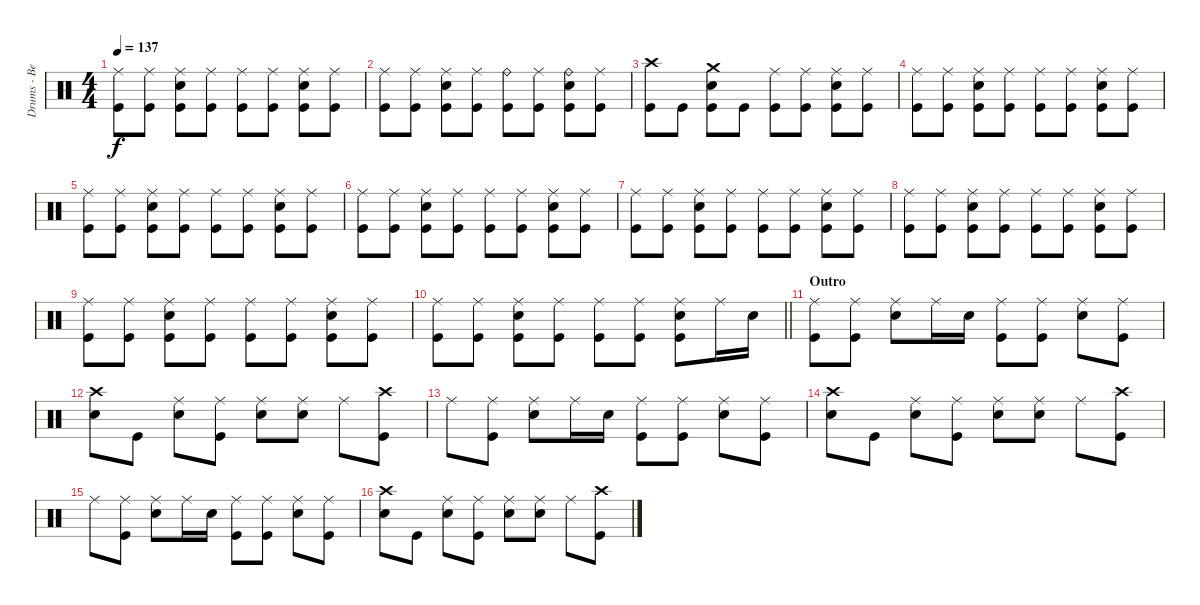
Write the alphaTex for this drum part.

\track ("Drums - Ben Johnston" "Drums - Be") {instrument percussion}
\staff {score}
\articulation defaults
\ts (4 4)
\tempo 137
\clef neutral
\ks c
("Ride (middle)" "Kick (hit)").8{dy f} ("Ride (middle)" "Kick (hit)").8 ("Ride (middle)" "Snare (hit) 2" "Kick (hit)").8 ("Ride (middle)" "Kick (hit)").8 ("Ride (middle)" "Kick (hit)").8 ("Ride (middle)" "Kick (hit)").8 ("Ride (middle)" "Snare (hit) 2" "Kick (hit)").8 ("Ride (middle)" "Kick (hit)").8 |
("Ride (middle)" "Kick (hit)").8 ("Ride (middle)" "Kick (hit)").8 ("Ride (middle)" "Snare (hit) 2" "Kick (hit)").8 ("Ride (middle)" "Kick (hit)").8 ("Ride (bell)" "Kick (hit)").8 ("Ride (middle)" "Kick (hit)").8 ("Ride (bell)" "Snare (hit) 2" "Kick (hit)").8 ("Ride (middle)" "Kick (hit)").8 |
("Crash high (hit)" "Kick (hit)").8 "Kick (hit)".8 ("Crash medium (hit)" "Snare (hit) 2" "Kick (hit)").8 "Kick (hit)".8 ("Ride (middle)" "Kick (hit)").8 ("Ride (middle)" "Kick (hit)").8 ("Ride (middle)" "Snare (hit) 2" "Kick (hit)").8 ("Ride (middle)" "Kick (hit)").8 |
("Ride (middle)" "Kick (hit)").8 ("Ride (middle)" "Kick (hit)").8 ("Ride (middle)" "Snare (hit) 2" "Kick (hit)").8 ("Ride (middle)" "Kick (hit)").8 ("Ride (middle)" "Kick (hit)").8 ("Ride (middle)" "Kick (hit)").8 ("Ride (middle)" "Snare (hit) 2" "Kick (hit)").8 ("Ride (middle)" "Kick (hit)").8 |
("Ride (middle)" "Kick (hit)").8 ("Ride (middle)" "Kick (hit)").8 ("Ride (middle)" "Snare (hit) 2" "Kick (hit)").8 ("Ride (middle)" "Kick (hit)").8 ("Ride (middle)" "Kick (hit)").8 ("Ride (middle)" "Kick (hit)").8 ("Ride (middle)" "Snare (hit) 2" "Kick (hit)").8 ("Ride (middle)" "Kick (hit)").8 |
("Ride (middle)" "Kick (hit)").8 ("Ride (middle)" "Kick (hit)").8 ("Ride (middle)" "Snare (hit) 2" "Kick (hit)").8 ("Ride (middle)" "Kick (hit)").8 ("Ride (middle)" "Kick (hit)").8 ("Ride (middle)" "Kick (hit)").8 ("Ride (middle)" "Snare (hit) 2" "Kick (hit)").8 ("Ride (middle)" "Kick (hit)").8 |
("Ride (middle)" "Kick (hit)").8 ("Ride (middle)" "Kick (hit)").8 ("Ride (middle)" "Snare (hit) 2" "Kick (hit)").8 ("Ride (middle)" "Kick (hit)").8 ("Ride (middle)" "Kick (hit)").8 ("Ride (middle)" "Kick (hit)").8 ("Ride (middle)" "Snare (hit) 2" "Kick (hit)").8 ("Ride (middle)" "Kick (hit)").8 |
("Ride (middle)" "Kick (hit)").8 ("Ride (middle)" "Kick (hit)").8 ("Ride (middle)" "Snare (hit) 2" "Kick (hit)").8 ("Ride (middle)" "Kick (hit)").8 ("Ride (middle)" "Kick (hit)").8 ("Ride (middle)" "Kick (hit)").8 ("Ride (middle)" "Snare (hit) 2" "Kick (hit)").8 ("Ride (middle)" "Kick (hit)").8 |
("Ride (middle)" "Kick (hit)").8 ("Ride (middle)" "Kick (hit)").8 ("Ride (middle)" "Snare (hit) 2" "Kick (hit)").8 ("Ride (middle)" "Kick (hit)").8 ("Ride (middle)" "Kick (hit)").8 ("Ride (middle)" "Kick (hit)").8 ("Ride (middle)" "Snare (hit) 2" "Kick (hit)").8 ("Ride (middle)" "Kick (hit)").8 |
\barLineRight lightlight
("Ride (middle)" "Kick (hit)").8 ("Ride (middle)" "Kick (hit)").8 ("Ride (middle)" "Snare (hit) 2" "Kick (hit)").8 ("Ride (middle)" "Kick (hit)").8 ("Ride (middle)" "Kick (hit)").8 ("Ride (middle)" "Kick (hit)").8 ("Ride (middle)" "Snare (hit) 2" "Kick (hit)").8 "Ride (middle)".16 "Snare (hit) 2".16 |
\section ("" "Outro")
("Ride (middle)" "Kick (hit)").8 ("Ride (middle)" "Kick (hit)").8 ("Ride (middle)" "Snare (hit) 2").8 "Ride (middle)".16 "Snare (hit) 2".16 ("Ride (middle)" "Kick (hit)").8 ("Ride (middle)" "Kick (hit)").8 ("Ride (middle)" "Snare (hit) 2").8 ("Ride (middle)" "Kick (hit)").8 |
("Crash high (hit)" "Snare (hit) 2").8 "Kick (hit)".8 ("Ride (middle)" "Snare (hit) 2").8 ("Ride (middle)" "Kick (hit)").8 ("Ride (middle)" "Snare (hit) 2").8 ("Ride (middle)" "Snare (hit) 2").8 "Ride (middle)".8 ("Crash high (hit)" "Kick (hit)").8 |
"Ride (middle)".8 ("Ride (middle)" "Kick (hit)").8 ("Ride (middle)" "Snare (hit) 2").8 "Ride (middle)".16 "Snare (hit) 2".16 ("Ride (middle)" "Kick (hit)").8 ("Ride (middle)" "Kick (hit)").8 ("Ride (middle)" "Snare (hit) 2").8 ("Ride (middle)" "Kick (hit)").8 |
("Crash high (hit)" "Snare (hit) 2").8 "Kick (hit)".8 ("Ride (middle)" "Snare (hit) 2").8 ("Ride (middle)" "Kick (hit)").8 ("Ride (middle)" "Snare (hit) 2").8 ("Ride (middle)" "Snare (hit) 2").8 "Ride (middle)".8 ("Crash high (hit)" "Kick (hit)").8 |
"Ride (middle)".8 ("Ride (middle)" "Kick (hit)").8 ("Ride (middle)" "Snare (hit) 2").8 "Ride (middle)".16 "Snare (hit) 2".16 ("Ride (middle)" "Kick (hit)").8 ("Ride (middle)" "Kick (hit)").8 ("Ride (middle)" "Snare (hit) 2").8 ("Ride (middle)" "Kick (hit)").8 |
("Crash high (hit)" "Snare (hit) 2").8 "Kick (hit)".8 ("Ride (middle)" "Snare (hit) 2").8 ("Ride (middle)" "Kick (hit)").8 ("Ride (middle)" "Snare (hit) 2").8 ("Ride (middle)" "Snare (hit) 2").8 "Ride (middle)".8 ("Crash high (hit)" "Kick (hit)").8
